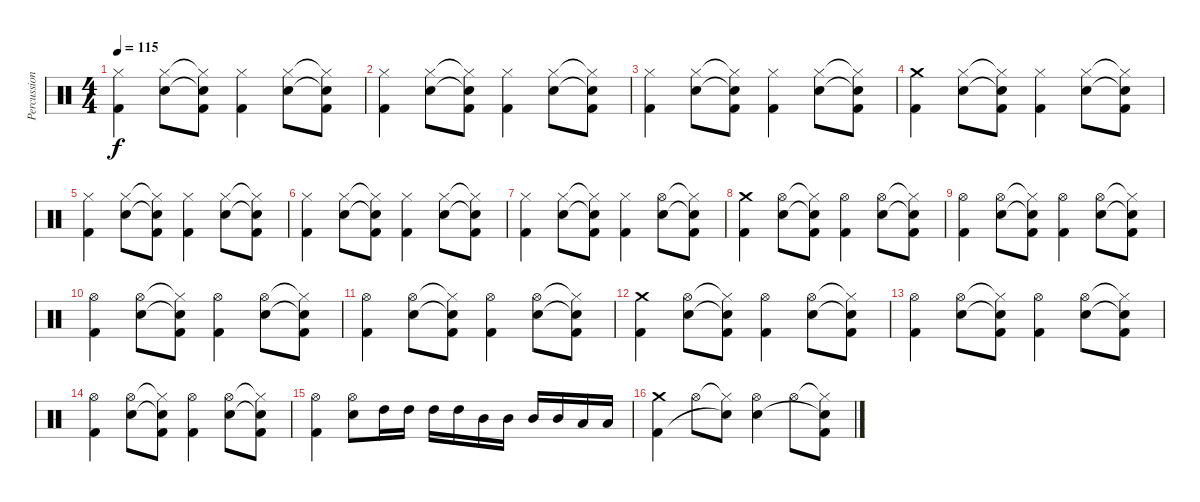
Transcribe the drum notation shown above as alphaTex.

\track ("Percussion" "Percussion") {instrument percussion}
\staff {score}
\articulation defaults
\ts (4 4)
\tempo 115
\clef neutral
\ks c
("Hi-Hat (closed)" "Kick (hit) 2").4{dy f} ("Hi-Hat (closed)" "Snare (hit) 2").8 ("Hi-Hat (closed)"{t} "Snare (hit) 2"{t} "Kick (hit) 2").8 ("Hi-Hat (closed)" "Kick (hit) 2").4 ("Hi-Hat (closed)" "Snare (hit) 2").8 ("Hi-Hat (closed)"{t} "Snare (hit) 2"{t} "Kick (hit) 2").8 |
("Hi-Hat (closed)" "Kick (hit) 2").4 ("Hi-Hat (closed)" "Snare (hit) 2").8 ("Hi-Hat (closed)"{t} "Snare (hit) 2"{t} "Kick (hit) 2").8 ("Hi-Hat (closed)" "Kick (hit) 2").4 ("Hi-Hat (closed)" "Snare (hit) 2").8 ("Hi-Hat (closed)"{t} "Snare (hit) 2"{t} "Kick (hit) 2").8 |
("Hi-Hat (closed)" "Kick (hit) 2").4 ("Hi-Hat (closed)" "Snare (hit) 2").8 ("Hi-Hat (closed)"{t} "Snare (hit) 2"{t} "Kick (hit) 2").8 ("Hi-Hat (closed)" "Kick (hit) 2").4 ("Hi-Hat (closed)" "Snare (hit) 2").8 ("Hi-Hat (closed)"{t} "Snare (hit) 2"{t} "Kick (hit) 2").8 |
("Crash medium (hit)" "Kick (hit) 2").4 ("Hi-Hat (closed)" "Snare (hit) 2").8 ("Hi-Hat (closed)"{t} "Snare (hit) 2"{t} "Kick (hit) 2").8 ("Hi-Hat (closed)" "Kick (hit) 2").4 ("Hi-Hat (closed)" "Snare (hit) 2").8 ("Hi-Hat (closed)"{t} "Snare (hit) 2"{t} "Kick (hit) 2").8 |
("Hi-Hat (closed)" "Kick (hit) 2").4 ("Hi-Hat (closed)" "Snare (hit) 2").8 ("Hi-Hat (closed)"{t} "Snare (hit) 2"{t} "Kick (hit) 2").8 ("Hi-Hat (closed)" "Kick (hit) 2").4 ("Hi-Hat (closed)" "Snare (hit) 2").8 ("Hi-Hat (closed)"{t} "Snare (hit) 2"{t} "Kick (hit) 2").8 |
("Hi-Hat (closed)" "Kick (hit) 2").4 ("Hi-Hat (closed)" "Snare (hit) 2").8 ("Hi-Hat (closed)"{t} "Snare (hit) 2"{t} "Kick (hit) 2").8 ("Hi-Hat (closed)" "Kick (hit) 2").4 ("Hi-Hat (closed)" "Snare (hit) 2").8 ("Hi-Hat (closed)"{t} "Snare (hit) 2"{t} "Kick (hit) 2").8 |
("Hi-Hat (closed)" "Kick (hit) 2").4 ("Hi-Hat (closed)" "Snare (hit) 2").8 ("Hi-Hat (closed)"{t} "Snare (hit) 2"{t} "Kick (hit) 2").8 ("Hi-Hat (closed)" "Kick (hit) 2").4 ("Hi-Hat (open)" "Snare (hit) 2").8 ("Hi-Hat (closed)"{t} "Snare (hit) 2"{t} "Kick (hit) 2").8 |
("Crash medium (hit)" "Kick (hit) 2").4 ("Hi-Hat (open)" "Snare (hit) 2").8 ("Hi-Hat (closed)"{t} "Snare (hit) 2"{t} "Kick (hit) 2").8 ("Hi-Hat (open)" "Kick (hit) 2").4 ("Hi-Hat (open)" "Snare (hit) 2").8 ("Hi-Hat (closed)"{t} "Snare (hit) 2"{t} "Kick (hit) 2").8 |
("Hi-Hat (open)" "Kick (hit) 2").4 ("Hi-Hat (open)" "Snare (hit) 2").8 ("Hi-Hat (closed)"{t} "Snare (hit) 2"{t} "Kick (hit) 2").8 ("Hi-Hat (open)" "Kick (hit) 2").4 ("Hi-Hat (open)" "Snare (hit) 2").8 ("Hi-Hat (closed)"{t} "Snare (hit) 2"{t} "Kick (hit) 2").8 |
("Hi-Hat (open)" "Kick (hit) 2").4 ("Hi-Hat (open)" "Snare (hit) 2").8 ("Hi-Hat (closed)"{t} "Snare (hit) 2"{t} "Kick (hit) 2").8 ("Hi-Hat (open)" "Kick (hit) 2").4 ("Hi-Hat (open)" "Snare (hit) 2").8 ("Hi-Hat (closed)"{t} "Snare (hit) 2"{t} "Kick (hit) 2").8 |
("Hi-Hat (open)" "Kick (hit) 2").4 ("Hi-Hat (open)" "Snare (hit) 2").8 ("Hi-Hat (closed)"{t} "Snare (hit) 2"{t} "Kick (hit) 2").8 ("Hi-Hat (open)" "Kick (hit) 2").4 ("Hi-Hat (open)" "Snare (hit) 2").8 ("Hi-Hat (closed)"{t} "Snare (hit) 2"{t} "Kick (hit) 2").8 |
("Crash medium (hit)" "Kick (hit) 2").4 ("Hi-Hat (open)" "Snare (hit) 2").8 ("Hi-Hat (closed)"{t} "Snare (hit) 2"{t} "Kick (hit) 2").8 ("Hi-Hat (open)" "Kick (hit) 2").4 ("Hi-Hat (open)" "Snare (hit) 2").8 ("Hi-Hat (closed)"{t} "Snare (hit) 2"{t} "Kick (hit) 2").8 |
("Hi-Hat (open)" "Kick (hit) 2").4 ("Hi-Hat (open)" "Snare (hit) 2").8 ("Hi-Hat (closed)"{t} "Snare (hit) 2"{t} "Kick (hit) 2").8 ("Hi-Hat (open)" "Kick (hit) 2").4 ("Hi-Hat (open)" "Snare (hit) 2").8 ("Hi-Hat (closed)"{t} "Snare (hit) 2"{t} "Kick (hit) 2").8 |
("Hi-Hat (open)" "Kick (hit) 2").4 ("Hi-Hat (open)" "Snare (hit) 2").8 ("Hi-Hat (closed)"{t} "Snare (hit) 2"{t} "Kick (hit) 2").8 ("Hi-Hat (open)" "Kick (hit) 2").4 ("Hi-Hat (open)" "Snare (hit) 2").8 ("Hi-Hat (closed)"{t} "Snare (hit) 2"{t} "Kick (hit) 2").8 |
("Hi-Hat (open)" "Kick (hit) 2").4 ("Hi-Hat (open)" "Snare (hit) 2").8 "High Tom (hit)".16 "High Tom (hit)".16 "High Tom (hit)".16 "High Tom (hit)".16 "Mid Tom (hit)".16 "Mid Tom (hit)".16 "Mid Tom (hit)".16 "Mid Tom (hit)".16 "Low Tom (hit)".16 "Low Tom (hit)".16 |
("Crash medium (hit)" "Kick (hit) 2").4 "Hi-Hat (open)".8 ("Hi-Hat (closed)"{t} "Snare (hit) 2"{t}).8 ("Hi-Hat (open)" "Snare (hit) 2").4 "Hi-Hat (open)".8 ("Hi-Hat (closed)"{t} "Snare (hit) 2"{t} "Kick (hit) 2").8
